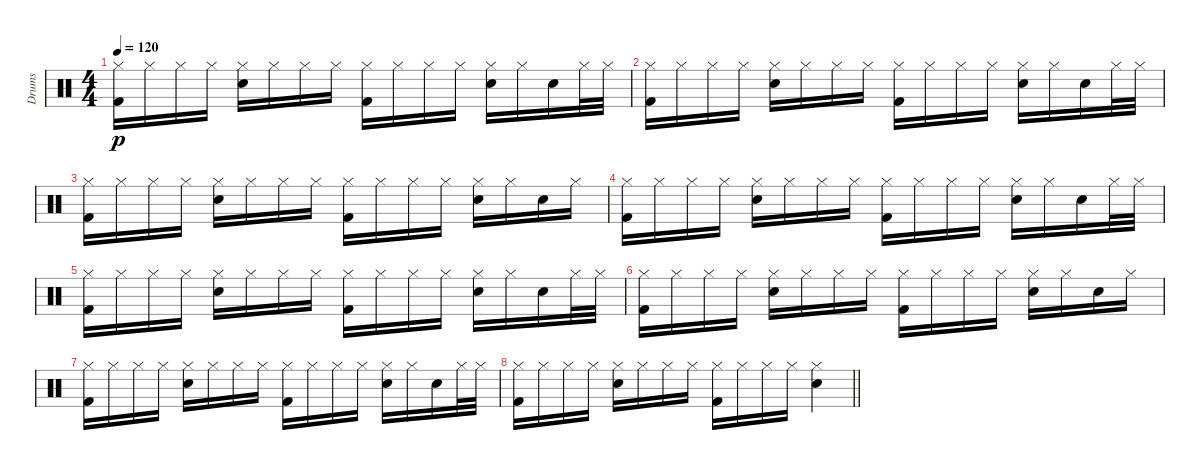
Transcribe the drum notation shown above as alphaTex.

\track ("Drums" "Drums") {instrument percussion}
\staff
\articulation defaults
\ts (4 4)
\tempo 120
\clef neutral
\ks c
("Hi-Hat (closed)" "Kick (hit) 2").16{dy p} "Hi-Hat (closed)".16 "Hi-Hat (closed)".16 "Hi-Hat (closed)".16 ("Hi-Hat (closed)" "Electric Snare (hit)").16 "Hi-Hat (closed)".16 "Hi-Hat (closed)".16 "Hi-Hat (closed)".16 ("Hi-Hat (closed)" "Kick (hit) 2").16 "Hi-Hat (closed)".16 "Hi-Hat (closed)".16 "Hi-Hat (closed)".16 ("Hi-Hat (closed)" "Electric Snare (hit)").16 "Hi-Hat (closed)".16 "Snare (hit)".16 "Hi-Hat (closed)".32 "Hi-Hat (closed)".32 |
("Hi-Hat (closed)" "Kick (hit) 2").16 "Hi-Hat (closed)".16 "Hi-Hat (closed)".16 "Hi-Hat (closed)".16 ("Hi-Hat (closed)" "Electric Snare (hit)").16 "Hi-Hat (closed)".16 "Hi-Hat (closed)".16 "Hi-Hat (closed)".16 ("Hi-Hat (closed)" "Kick (hit) 2").16 "Hi-Hat (closed)".16 "Hi-Hat (closed)".16 "Hi-Hat (closed)".16 ("Hi-Hat (closed)" "Electric Snare (hit)").16 "Hi-Hat (closed)".16 "Snare (hit)".16 "Hi-Hat (closed)".32 "Hi-Hat (closed)".32 |
("Hi-Hat (closed)" "Kick (hit) 2").16 "Hi-Hat (closed)".16 "Hi-Hat (closed)".16 "Hi-Hat (closed)".16 ("Hi-Hat (closed)" "Electric Snare (hit)").16 "Hi-Hat (closed)".16 "Hi-Hat (closed)".16 "Hi-Hat (closed)".16 ("Hi-Hat (closed)" "Kick (hit) 2").16 "Hi-Hat (closed)".16 "Hi-Hat (closed)".16 "Hi-Hat (closed)".16 ("Hi-Hat (closed)" "Electric Snare (hit)").16 "Hi-Hat (closed)".16 "Snare (hit)".16 "Hi-Hat (closed)".16 |
("Hi-Hat (closed)" "Kick (hit) 2").16 "Hi-Hat (closed)".16 "Hi-Hat (closed)".16 "Hi-Hat (closed)".16 ("Hi-Hat (closed)" "Electric Snare (hit)").16 "Hi-Hat (closed)".16 "Hi-Hat (closed)".16 "Hi-Hat (closed)".16 ("Hi-Hat (closed)" "Kick (hit) 2").16 "Hi-Hat (closed)".16 "Hi-Hat (closed)".16 "Hi-Hat (closed)".16 ("Hi-Hat (closed)" "Electric Snare (hit)").16 "Hi-Hat (closed)".16 "Snare (hit)".16 "Hi-Hat (closed)".32 "Hi-Hat (closed)".32 |
("Hi-Hat (closed)" "Kick (hit) 2").16 "Hi-Hat (closed)".16 "Hi-Hat (closed)".16 "Hi-Hat (closed)".16 ("Hi-Hat (closed)" "Electric Snare (hit)").16 "Hi-Hat (closed)".16 "Hi-Hat (closed)".16 "Hi-Hat (closed)".16 ("Hi-Hat (closed)" "Kick (hit) 2").16 "Hi-Hat (closed)".16 "Hi-Hat (closed)".16 "Hi-Hat (closed)".16 ("Hi-Hat (closed)" "Electric Snare (hit)").16 "Hi-Hat (closed)".16 "Snare (hit)".16 "Hi-Hat (closed)".32 "Hi-Hat (closed)".32 |
("Hi-Hat (closed)" "Kick (hit) 2").16 "Hi-Hat (closed)".16 "Hi-Hat (closed)".16 "Hi-Hat (closed)".16 ("Hi-Hat (closed)" "Electric Snare (hit)").16 "Hi-Hat (closed)".16 "Hi-Hat (closed)".16 "Hi-Hat (closed)".16 ("Hi-Hat (closed)" "Kick (hit) 2").16 "Hi-Hat (closed)".16 "Hi-Hat (closed)".16 "Hi-Hat (closed)".16 ("Hi-Hat (closed)" "Electric Snare (hit)").16 "Hi-Hat (closed)".16 "Snare (hit)".16 "Hi-Hat (closed)".16 |
("Hi-Hat (closed)" "Kick (hit) 2").16 "Hi-Hat (closed)".16 "Hi-Hat (closed)".16 "Hi-Hat (closed)".16 ("Hi-Hat (closed)" "Electric Snare (hit)").16 "Hi-Hat (closed)".16 "Hi-Hat (closed)".16 "Hi-Hat (closed)".16 ("Hi-Hat (closed)" "Kick (hit) 2").16 "Hi-Hat (closed)".16 "Hi-Hat (closed)".16 "Hi-Hat (closed)".16 ("Hi-Hat (closed)" "Electric Snare (hit)").16 "Hi-Hat (closed)".16 "Snare (hit)".16 "Hi-Hat (closed)".32 "Hi-Hat (closed)".32 |
\barLineRight lightlight
("Hi-Hat (closed)" "Kick (hit) 2").16 "Hi-Hat (closed)".16 "Hi-Hat (closed)".16 "Hi-Hat (closed)".16 ("Hi-Hat (closed)" "Electric Snare (hit)").16 "Hi-Hat (closed)".16 "Hi-Hat (closed)".16 "Hi-Hat (closed)".16 ("Hi-Hat (closed)" "Kick (hit) 2").16 "Hi-Hat (closed)".16 "Hi-Hat (closed)".16 "Hi-Hat (closed)".16 ("Hi-Hat (closed)" "Electric Snare (hit)").4
